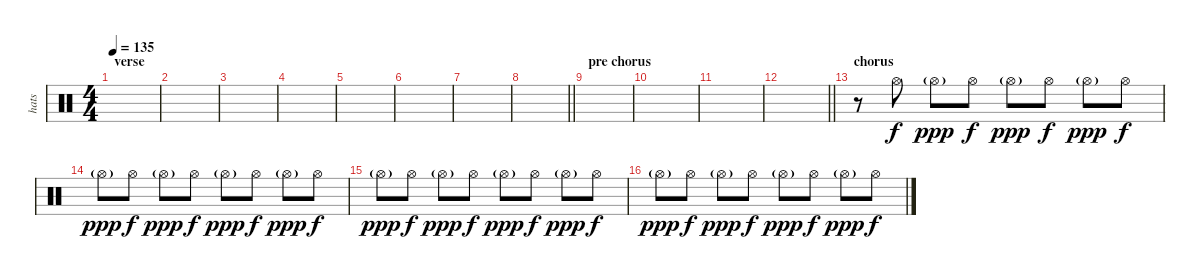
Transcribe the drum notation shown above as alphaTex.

\track ("hats" "hats") {instrument percussion}
\staff {score}
\articulation defaults
\ts (4 4)
\section ("" "verse")
\tempo 135
\clef neutral
\ks c
|
|
|
|
|
|
|
\barLineRight lightlight
|
\section ("" "pre chorus")
|
|
|
\barLineRight lightlight
|
\section ("" "chorus")
r.8 "Hi-Hat (open)".8 "Hi-Hat (open)"{g}.8{dy ppp} "Hi-Hat (open)".8{dy f} "Hi-Hat (open)"{g}.8{dy ppp} "Hi-Hat (open)".8{dy f} "Hi-Hat (open)"{g}.8{dy ppp} "Hi-Hat (open)".8{dy f} |
"Hi-Hat (open)"{g}.8{dy ppp} "Hi-Hat (open)".8{dy f} "Hi-Hat (open)"{g}.8{dy ppp} "Hi-Hat (open)".8{dy f} "Hi-Hat (open)"{g}.8{dy ppp} "Hi-Hat (open)".8{dy f} "Hi-Hat (open)"{g}.8{dy ppp} "Hi-Hat (open)".8{dy f} |
"Hi-Hat (open)"{g}.8{dy ppp} "Hi-Hat (open)".8{dy f} "Hi-Hat (open)"{g}.8{dy ppp} "Hi-Hat (open)".8{dy f} "Hi-Hat (open)"{g}.8{dy ppp} "Hi-Hat (open)".8{dy f} "Hi-Hat (open)"{g}.8{dy ppp} "Hi-Hat (open)".8{dy f} |
"Hi-Hat (open)"{g}.8{dy ppp} "Hi-Hat (open)".8{dy f} "Hi-Hat (open)"{g}.8{dy ppp} "Hi-Hat (open)".8{dy f} "Hi-Hat (open)"{g}.8{dy ppp} "Hi-Hat (open)".8{dy f} "Hi-Hat (open)"{g}.8{dy ppp} "Hi-Hat (open)".8{dy f}
